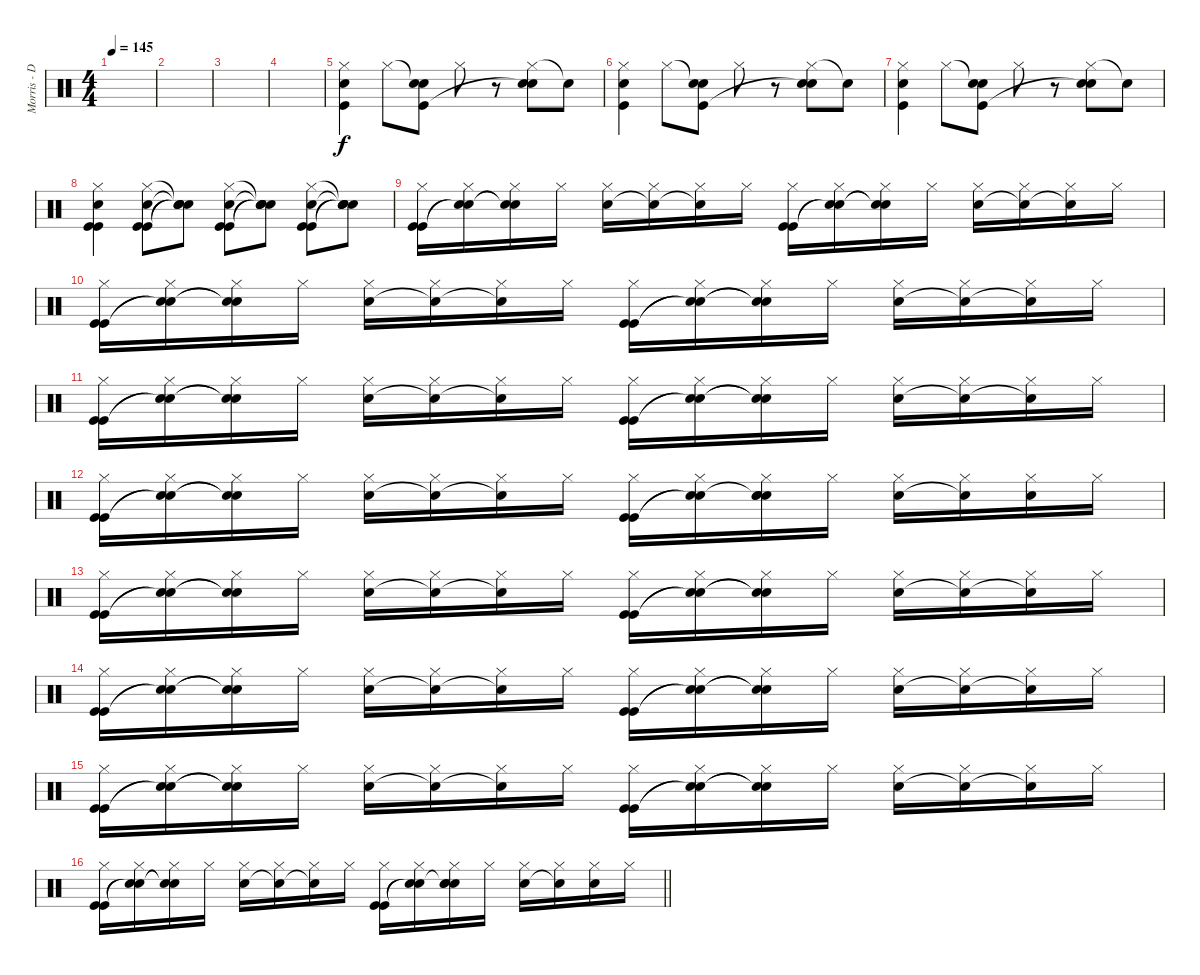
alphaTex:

\track ("Morris - Drums" "Morris - D") {instrument percussion}
\staff {score}
\articulation defaults
\ts (4 4)
\tempo 145
\clef neutral
\ks c
|
|
|
|
("Hi-Hat (closed)" "Snare (hit) 2" "Kick (hit)").4 "Hi-Hat (closed)".8 ("Snare (hit)"{t} "Snare (hit) 2" "Kick (hit)").8 "Hi-Hat (closed)".8 r.8 ("Hi-Hat (closed)" "Snare (hit) 2" "Snare (hit)"{t}).8 "Snare (hit)"{t}.8 |
("Hi-Hat (closed)" "Snare (hit) 2" "Kick (hit)").4 "Hi-Hat (closed)".8 ("Snare (hit)"{t} "Snare (hit) 2" "Kick (hit)").8 "Hi-Hat (closed)".8 r.8 ("Hi-Hat (closed)" "Snare (hit) 2" "Snare (hit)"{t}).8 "Snare (hit)"{t}.8 |
("Hi-Hat (closed)" "Snare (hit) 2" "Kick (hit)").4 "Hi-Hat (closed)".8 ("Snare (hit)"{t} "Snare (hit) 2" "Kick (hit)").8 "Hi-Hat (closed)".8 r.8 ("Hi-Hat (closed)" "Snare (hit) 2" "Snare (hit)"{t}).8 "Snare (hit)"{t}.8 |
("Hi-Hat (closed)" "Snare (hit) 2" "Kick (hit)" "Kick (hit)").4 ("Hi-Hat (closed)" "Snare (hit) 2" "Kick (hit)" "Kick (hit)").8 ("Snare (hit)"{t} "Snare (hit) 2"{t} "Snare (hit)"{t} "Snare (hit)"{t}).8 ("Hi-Hat (closed)" "Snare (hit) 2" "Kick (hit)" "Kick (hit)").8 ("Snare (hit)"{t} "Snare (hit) 2"{t} "Snare (hit)"{t} "Snare (hit)"{t}).8 ("Hi-Hat (closed)" "Snare (hit) 2" "Kick (hit)" "Kick (hit)").8 ("Snare (hit)"{t} "Snare (hit)"{t} "Snare (hit)"{t} "Snare (hit)"{t}).8 |
("Hi-Hat (closed)" "Kick (hit)" "Kick (hit)").16 ("Hi-Hat (closed)" "Snare (hit)"{t} "Snare (hit)"{t}).16 ("Hi-Hat (closed)" "Snare (hit)"{t} "Snare (hit)"{t}).16 "Hi-Hat (closed)".16 ("Hi-Hat (closed)" "Snare (hit) 2").16 ("Hi-Hat (closed)" "Snare (hit)"{t}).16 ("Hi-Hat (closed)" "Snare (hit) 2"{t}).16 "Hi-Hat (closed)".16 ("Hi-Hat (closed)" "Kick (hit)" "Kick (hit)").16 ("Hi-Hat (closed)" "Snare (hit)"{t} "Snare (hit)"{t}).16 ("Hi-Hat (closed)" "Snare (hit)"{t} "Snare (hit)"{t}).16 "Hi-Hat (closed)".16 ("Hi-Hat (closed)" "Snare (hit) 2").16 ("Hi-Hat (closed)" "Snare (hit) 2"{t}).16 ("Hi-Hat (closed)" "Snare (hit)"{t}).16 "Hi-Hat (closed)".16 |
("Hi-Hat (closed)" "Kick (hit)" "Kick (hit)").16 ("Hi-Hat (closed)" "Snare (hit)"{t} "Snare (hit)"{t}).16 ("Hi-Hat (closed)" "Snare (hit)"{t} "Snare (hit)"{t}).16 "Hi-Hat (closed)".16 ("Hi-Hat (closed)" "Snare (hit) 2").16 ("Hi-Hat (closed)" "Snare (hit)"{t}).16 ("Hi-Hat (closed)" "Snare (hit) 2"{t}).16 "Hi-Hat (closed)".16 ("Hi-Hat (closed)" "Kick (hit)" "Kick (hit)").16 ("Hi-Hat (closed)" "Snare (hit)"{t} "Snare (hit)"{t}).16 ("Hi-Hat (closed)" "Snare (hit)"{t} "Snare (hit)"{t}).16 "Hi-Hat (closed)".16 ("Hi-Hat (closed)" "Snare (hit) 2").16 ("Hi-Hat (closed)" "Snare (hit) 2"{t}).16 ("Hi-Hat (closed)" "Snare (hit)"{t}).16 "Hi-Hat (closed)".16 |
("Hi-Hat (closed)" "Kick (hit)" "Kick (hit)").16 ("Hi-Hat (closed)" "Snare (hit)"{t} "Snare (hit)"{t}).16 ("Hi-Hat (closed)" "Snare (hit)"{t} "Snare (hit)"{t}).16 "Hi-Hat (closed)".16 ("Hi-Hat (closed)" "Snare (hit) 2").16 ("Hi-Hat (closed)" "Snare (hit)"{t}).16 ("Hi-Hat (closed)" "Snare (hit) 2"{t}).16 "Hi-Hat (closed)".16 ("Hi-Hat (closed)" "Kick (hit)" "Kick (hit)").16 ("Hi-Hat (closed)" "Snare (hit)"{t} "Snare (hit)"{t}).16 ("Hi-Hat (closed)" "Snare (hit)"{t} "Snare (hit)"{t}).16 "Hi-Hat (closed)".16 ("Hi-Hat (closed)" "Snare (hit) 2").16 ("Hi-Hat (closed)" "Snare (hit) 2"{t}).16 ("Hi-Hat (closed)" "Snare (hit)"{t}).16 "Hi-Hat (closed)".16 |
("Hi-Hat (closed)" "Kick (hit)" "Kick (hit)").16 ("Hi-Hat (closed)" "Snare (hit)"{t} "Snare (hit)"{t}).16 ("Hi-Hat (closed)" "Snare (hit)"{t} "Snare (hit)"{t}).16 "Hi-Hat (closed)".16 ("Hi-Hat (closed)" "Snare (hit) 2").16 ("Hi-Hat (closed)" "Snare (hit)"{t}).16 ("Hi-Hat (closed)" "Snare (hit) 2"{t}).16 "Hi-Hat (closed)".16 ("Hi-Hat (closed)" "Kick (hit)" "Kick (hit)").16 ("Hi-Hat (closed)" "Snare (hit)"{t} "Snare (hit)"{t}).16 ("Hi-Hat (closed)" "Snare (hit) 2" "Snare (hit)"{t} "Snare (hit)").16 "Hi-Hat (closed)".16 ("Hi-Hat (closed)" "Snare (hit) 2").16 ("Hi-Hat (closed)" "Snare (hit) 2"{t}).16 ("Hi-Hat (closed)" "Snare (hit) 2").16 "Hi-Hat (closed)".16 |
("Hi-Hat (closed)" "Kick (hit)" "Kick (hit)").16 ("Hi-Hat (closed)" "Snare (hit)"{t} "Snare (hit)"{t}).16 ("Hi-Hat (closed)" "Snare (hit)"{t} "Snare (hit)"{t}).16 "Hi-Hat (closed)".16 ("Hi-Hat (closed)" "Snare (hit) 2").16 ("Hi-Hat (closed)" "Snare (hit)"{t}).16 ("Hi-Hat (closed)" "Snare (hit) 2"{t}).16 "Hi-Hat (closed)".16 ("Hi-Hat (closed)" "Kick (hit)" "Kick (hit)").16 ("Hi-Hat (closed)" "Snare (hit)"{t} "Snare (hit)"{t}).16 ("Hi-Hat (closed)" "Snare (hit)"{t} "Snare (hit)"{t}).16 "Hi-Hat (closed)".16 ("Hi-Hat (closed)" "Snare (hit) 2").16 ("Hi-Hat (closed)" "Snare (hit) 2"{t}).16 ("Hi-Hat (closed)" "Snare (hit)"{t}).16 "Hi-Hat (closed)".16 |
("Hi-Hat (closed)" "Kick (hit)" "Kick (hit)").16 ("Hi-Hat (closed)" "Snare (hit)"{t} "Snare (hit)"{t}).16 ("Hi-Hat (closed)" "Snare (hit)"{t} "Snare (hit)"{t}).16 "Hi-Hat (closed)".16 ("Hi-Hat (closed)" "Snare (hit) 2").16 ("Hi-Hat (closed)" "Snare (hit)"{t}).16 ("Hi-Hat (closed)" "Snare (hit) 2"{t}).16 "Hi-Hat (closed)".16 ("Hi-Hat (closed)" "Kick (hit)" "Kick (hit)").16 ("Hi-Hat (closed)" "Snare (hit)"{t} "Snare (hit)"{t}).16 ("Hi-Hat (closed)" "Snare (hit)"{t} "Snare (hit)"{t}).16 "Hi-Hat (closed)".16 ("Hi-Hat (closed)" "Snare (hit) 2").16 ("Hi-Hat (closed)" "Snare (hit) 2"{t}).16 ("Hi-Hat (closed)" "Snare (hit)"{t}).16 "Hi-Hat (closed)".16 |
("Hi-Hat (closed)" "Kick (hit)" "Kick (hit)").16 ("Hi-Hat (closed)" "Snare (hit)"{t} "Snare (hit)"{t}).16 ("Hi-Hat (closed)" "Snare (hit)"{t} "Snare (hit)"{t}).16 "Hi-Hat (closed)".16 ("Hi-Hat (closed)" "Snare (hit) 2").16 ("Hi-Hat (closed)" "Snare (hit)"{t}).16 ("Hi-Hat (closed)" "Snare (hit) 2"{t}).16 "Hi-Hat (closed)".16 ("Hi-Hat (closed)" "Kick (hit)" "Kick (hit)").16 ("Hi-Hat (closed)" "Snare (hit)"{t} "Snare (hit)"{t}).16 ("Hi-Hat (closed)" "Snare (hit)"{t} "Snare (hit)"{t}).16 "Hi-Hat (closed)".16 ("Hi-Hat (closed)" "Snare (hit) 2").16 ("Hi-Hat (closed)" "Snare (hit) 2"{t}).16 ("Hi-Hat (closed)" "Snare (hit)"{t}).16 "Hi-Hat (closed)".16 |
\barLineRight lightlight
("Hi-Hat (closed)" "Kick (hit)" "Kick (hit)").16 ("Hi-Hat (closed)" "Snare (hit)"{t} "Snare (hit)"{t}).16 ("Hi-Hat (closed)" "Snare (hit)"{t} "Snare (hit)"{t}).16 "Hi-Hat (closed)".16 ("Hi-Hat (closed)" "Snare (hit) 2").16 ("Hi-Hat (closed)" "Snare (hit)"{t}).16 ("Hi-Hat (closed)" "Snare (hit) 2"{t}).16 "Hi-Hat (closed)".16 ("Hi-Hat (closed)" "Kick (hit)" "Kick (hit)").16 ("Hi-Hat (closed)" "Snare (hit)"{t} "Snare (hit)"{t}).16 ("Hi-Hat (closed)" "Snare (hit) 2" "Snare (hit)"{t} "Snare (hit)").16 "Hi-Hat (closed)".16 ("Hi-Hat (closed)" "Snare (hit) 2").16 ("Hi-Hat (closed)" "Snare (hit) 2"{t}).16 ("Hi-Hat (closed)" "Snare (hit) 2").16 "Hi-Hat (closed)".16
